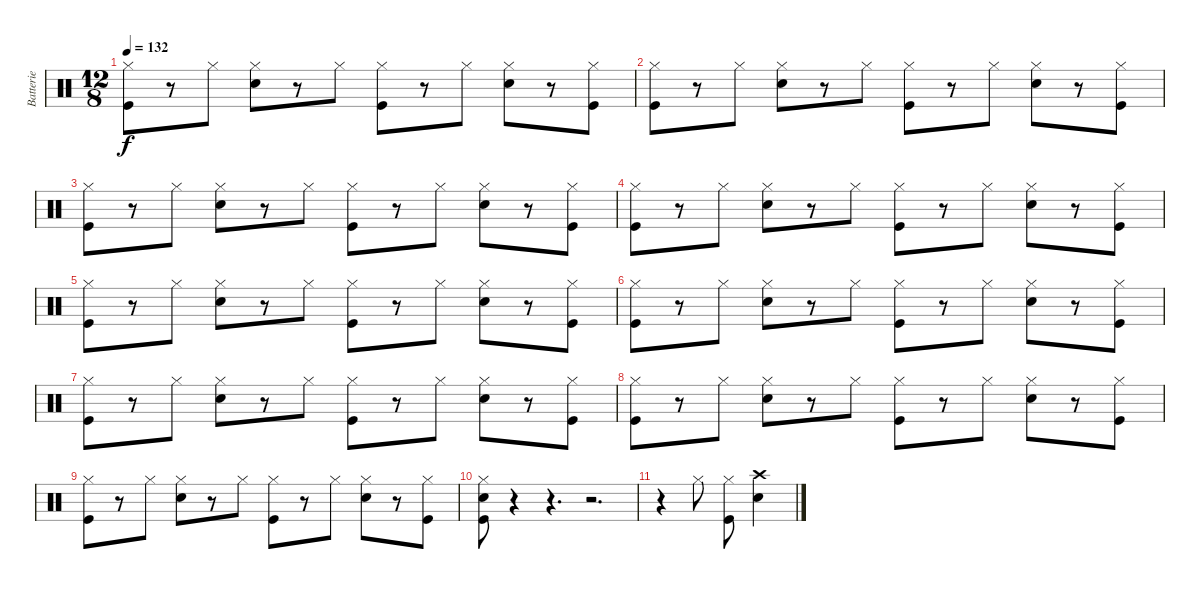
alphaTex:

\track ("Batterie" "Batterie") {instrument percussion}
\staff {score}
\articulation defaults
\ts (12 8)
\tempo 132
\clef neutral
\ks c
("Hi-Hat (closed)" "Kick (hit)").8{dy f} r.8 "Hi-Hat (closed)".8 ("Hi-Hat (closed)" "Snare (hit) 2").8 r.8 "Hi-Hat (closed)".8 ("Hi-Hat (closed)" "Kick (hit)").8 r.8 "Hi-Hat (closed)".8 ("Hi-Hat (closed)" "Snare (hit) 2").8 r.8 ("Hi-Hat (closed)" "Kick (hit)").8 |
("Hi-Hat (closed)" "Kick (hit)").8 r.8 "Hi-Hat (closed)".8 ("Hi-Hat (closed)" "Snare (hit) 2").8 r.8 "Hi-Hat (closed)".8 ("Hi-Hat (closed)" "Kick (hit)").8 r.8 "Hi-Hat (closed)".8 ("Hi-Hat (closed)" "Snare (hit) 2").8 r.8 ("Hi-Hat (closed)" "Kick (hit)").8 |
("Hi-Hat (closed)" "Kick (hit)").8 r.8 "Hi-Hat (closed)".8 ("Hi-Hat (closed)" "Snare (hit) 2").8 r.8 "Hi-Hat (closed)".8 ("Hi-Hat (closed)" "Kick (hit)").8 r.8 "Hi-Hat (closed)".8 ("Hi-Hat (closed)" "Snare (hit) 2").8 r.8 ("Hi-Hat (closed)" "Kick (hit)").8 |
("Hi-Hat (closed)" "Kick (hit)").8 r.8 "Hi-Hat (closed)".8 ("Hi-Hat (closed)" "Snare (hit) 2").8 r.8 "Hi-Hat (closed)".8 ("Hi-Hat (closed)" "Kick (hit)").8 r.8 "Hi-Hat (closed)".8 ("Hi-Hat (closed)" "Snare (hit) 2").8 r.8 ("Hi-Hat (closed)" "Kick (hit)").8 |
("Hi-Hat (closed)" "Kick (hit)").8 r.8 "Hi-Hat (closed)".8 ("Hi-Hat (closed)" "Snare (hit) 2").8 r.8 "Hi-Hat (closed)".8 ("Hi-Hat (closed)" "Kick (hit)").8 r.8 "Hi-Hat (closed)".8 ("Hi-Hat (closed)" "Snare (hit) 2").8 r.8 ("Hi-Hat (closed)" "Kick (hit)").8 |
("Hi-Hat (closed)" "Kick (hit)").8 r.8 "Hi-Hat (closed)".8 ("Hi-Hat (closed)" "Snare (hit) 2").8 r.8 "Hi-Hat (closed)".8 ("Hi-Hat (closed)" "Kick (hit)").8 r.8 "Hi-Hat (closed)".8 ("Hi-Hat (closed)" "Snare (hit) 2").8 r.8 ("Hi-Hat (closed)" "Kick (hit)").8 |
("Hi-Hat (closed)" "Kick (hit)").8 r.8 "Hi-Hat (closed)".8 ("Hi-Hat (closed)" "Snare (hit) 2").8 r.8 "Hi-Hat (closed)".8 ("Hi-Hat (closed)" "Kick (hit)").8 r.8 "Hi-Hat (closed)".8 ("Hi-Hat (closed)" "Snare (hit) 2").8 r.8 ("Hi-Hat (closed)" "Kick (hit)").8 |
("Hi-Hat (closed)" "Kick (hit)").8 r.8 "Hi-Hat (closed)".8 ("Hi-Hat (closed)" "Snare (hit) 2").8 r.8 "Hi-Hat (closed)".8 ("Hi-Hat (closed)" "Kick (hit)").8 r.8 "Hi-Hat (closed)".8 ("Hi-Hat (closed)" "Snare (hit) 2").8 r.8 ("Hi-Hat (closed)" "Kick (hit)").8 |
("Hi-Hat (closed)" "Kick (hit)").8 r.8 "Hi-Hat (closed)".8 ("Hi-Hat (closed)" "Snare (hit) 2").8 r.8 "Hi-Hat (closed)".8 ("Hi-Hat (closed)" "Kick (hit)").8 r.8 "Hi-Hat (closed)".8 ("Hi-Hat (closed)" "Snare (hit) 2").8 r.8 ("Hi-Hat (closed)" "Kick (hit)").8 |
("Hi-Hat (closed)" "Snare (hit) 2" "Kick (hit)").8 r.4 r.4{d} r.2{d} |
r.4 "Hi-Hat (closed)".8 ("Hi-Hat (closed)" "Kick (hit)").8 ("Crash high (hit)" "Snare (hit) 2").4
